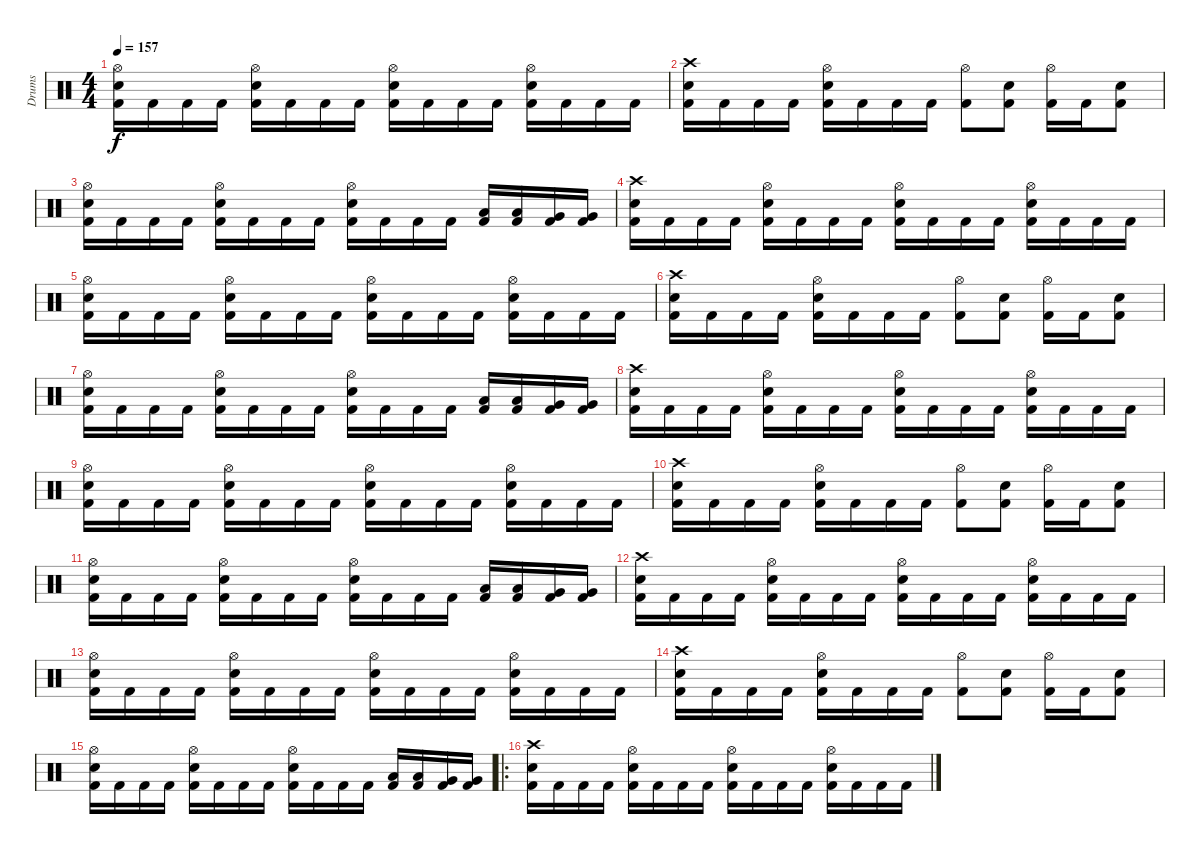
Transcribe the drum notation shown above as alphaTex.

\track ("Drums" "Drums") {instrument percussion}
\staff {score}
\articulation defaults
\ts (4 4)
\tempo 157
\clef neutral
\ks c
("Hi-Hat (open)" "Electric Snare (hit)" "Kick (hit) 2").16{dy f} "Kick (hit) 2".16 "Kick (hit) 2".16 "Kick (hit) 2".16 ("Hi-Hat (open)" "Electric Snare (hit)" "Kick (hit) 2").16 "Kick (hit) 2".16 "Kick (hit) 2".16 "Kick (hit) 2".16 ("Hi-Hat (open)" "Electric Snare (hit)" "Kick (hit) 2").16 "Kick (hit) 2".16 "Kick (hit) 2".16 "Kick (hit) 2".16 ("Hi-Hat (open)" "Electric Snare (hit)" "Kick (hit) 2").16 "Kick (hit) 2".16 "Kick (hit) 2".16 "Kick (hit) 2".16 |
("Crash high (hit)" "Electric Snare (hit)" "Kick (hit) 2").16 "Kick (hit) 2".16 "Kick (hit) 2".16 "Kick (hit) 2".16 ("Hi-Hat (open)" "Electric Snare (hit)" "Kick (hit) 2").16 "Kick (hit) 2".16 "Kick (hit) 2".16 "Kick (hit) 2".16 ("Hi-Hat (open)" "Kick (hit) 2").8 ("Electric Snare (hit)" "Kick (hit) 2").8 ("Hi-Hat (open)" "Kick (hit) 2").16 "Kick (hit) 2".16 ("Electric Snare (hit)" "Kick (hit) 2").8 |
("Hi-Hat (open)" "Electric Snare (hit)" "Kick (hit) 2").16 "Kick (hit) 2".16 "Kick (hit) 2".16 "Kick (hit) 2".16 ("Hi-Hat (open)" "Electric Snare (hit)" "Kick (hit) 2").16 "Kick (hit) 2".16 "Kick (hit) 2".16 "Kick (hit) 2".16 ("Hi-Hat (open)" "Electric Snare (hit)" "Kick (hit) 2").16 "Kick (hit) 2".16 "Kick (hit) 2".16 "Kick (hit) 2".16 ("Low Tom (hit)" "Kick (hit) 2").16 ("Low Tom (hit)" "Kick (hit) 2").16 ("Very Low Tom (hit)" "Kick (hit) 2").16 ("Very Low Tom (hit)" "Kick (hit) 2").16 |
("Crash high (hit)" "Electric Snare (hit)" "Kick (hit) 2").16 "Kick (hit) 2".16 "Kick (hit) 2".16 "Kick (hit) 2".16 ("Hi-Hat (open)" "Electric Snare (hit)" "Kick (hit) 2").16 "Kick (hit) 2".16 "Kick (hit) 2".16 "Kick (hit) 2".16 ("Hi-Hat (open)" "Electric Snare (hit)" "Kick (hit) 2").16 "Kick (hit) 2".16 "Kick (hit) 2".16 "Kick (hit) 2".16 ("Hi-Hat (open)" "Electric Snare (hit)" "Kick (hit) 2").16 "Kick (hit) 2".16 "Kick (hit) 2".16 "Kick (hit) 2".16 |
("Hi-Hat (open)" "Electric Snare (hit)" "Kick (hit) 2").16 "Kick (hit) 2".16 "Kick (hit) 2".16 "Kick (hit) 2".16 ("Hi-Hat (open)" "Electric Snare (hit)" "Kick (hit) 2").16 "Kick (hit) 2".16 "Kick (hit) 2".16 "Kick (hit) 2".16 ("Hi-Hat (open)" "Electric Snare (hit)" "Kick (hit) 2").16 "Kick (hit) 2".16 "Kick (hit) 2".16 "Kick (hit) 2".16 ("Hi-Hat (open)" "Electric Snare (hit)" "Kick (hit) 2").16 "Kick (hit) 2".16 "Kick (hit) 2".16 "Kick (hit) 2".16 |
("Crash high (hit)" "Electric Snare (hit)" "Kick (hit) 2").16 "Kick (hit) 2".16 "Kick (hit) 2".16 "Kick (hit) 2".16 ("Hi-Hat (open)" "Electric Snare (hit)" "Kick (hit) 2").16 "Kick (hit) 2".16 "Kick (hit) 2".16 "Kick (hit) 2".16 ("Hi-Hat (open)" "Kick (hit) 2").8 ("Electric Snare (hit)" "Kick (hit) 2").8 ("Hi-Hat (open)" "Kick (hit) 2").16 "Kick (hit) 2".16 ("Electric Snare (hit)" "Kick (hit) 2").8 |
("Hi-Hat (open)" "Electric Snare (hit)" "Kick (hit) 2").16 "Kick (hit) 2".16 "Kick (hit) 2".16 "Kick (hit) 2".16 ("Hi-Hat (open)" "Electric Snare (hit)" "Kick (hit) 2").16 "Kick (hit) 2".16 "Kick (hit) 2".16 "Kick (hit) 2".16 ("Hi-Hat (open)" "Electric Snare (hit)" "Kick (hit) 2").16 "Kick (hit) 2".16 "Kick (hit) 2".16 "Kick (hit) 2".16 ("Low Tom (hit)" "Kick (hit) 2").16 ("Low Tom (hit)" "Kick (hit) 2").16 ("Very Low Tom (hit)" "Kick (hit) 2").16 ("Very Low Tom (hit)" "Kick (hit) 2").16 |
("Crash high (hit)" "Electric Snare (hit)" "Kick (hit) 2").16 "Kick (hit) 2".16 "Kick (hit) 2".16 "Kick (hit) 2".16 ("Hi-Hat (open)" "Electric Snare (hit)" "Kick (hit) 2").16 "Kick (hit) 2".16 "Kick (hit) 2".16 "Kick (hit) 2".16 ("Hi-Hat (open)" "Electric Snare (hit)" "Kick (hit) 2").16 "Kick (hit) 2".16 "Kick (hit) 2".16 "Kick (hit) 2".16 ("Hi-Hat (open)" "Electric Snare (hit)" "Kick (hit) 2").16 "Kick (hit) 2".16 "Kick (hit) 2".16 "Kick (hit) 2".16 |
("Hi-Hat (open)" "Electric Snare (hit)" "Kick (hit) 2").16 "Kick (hit) 2".16 "Kick (hit) 2".16 "Kick (hit) 2".16 ("Hi-Hat (open)" "Electric Snare (hit)" "Kick (hit) 2").16 "Kick (hit) 2".16 "Kick (hit) 2".16 "Kick (hit) 2".16 ("Hi-Hat (open)" "Electric Snare (hit)" "Kick (hit) 2").16 "Kick (hit) 2".16 "Kick (hit) 2".16 "Kick (hit) 2".16 ("Hi-Hat (open)" "Electric Snare (hit)" "Kick (hit) 2").16 "Kick (hit) 2".16 "Kick (hit) 2".16 "Kick (hit) 2".16 |
("Crash high (hit)" "Electric Snare (hit)" "Kick (hit) 2").16 "Kick (hit) 2".16 "Kick (hit) 2".16 "Kick (hit) 2".16 ("Hi-Hat (open)" "Electric Snare (hit)" "Kick (hit) 2").16 "Kick (hit) 2".16 "Kick (hit) 2".16 "Kick (hit) 2".16 ("Hi-Hat (open)" "Kick (hit) 2").8 ("Electric Snare (hit)" "Kick (hit) 2").8 ("Hi-Hat (open)" "Kick (hit) 2").16 "Kick (hit) 2".16 ("Electric Snare (hit)" "Kick (hit) 2").8 |
("Hi-Hat (open)" "Electric Snare (hit)" "Kick (hit) 2").16 "Kick (hit) 2".16 "Kick (hit) 2".16 "Kick (hit) 2".16 ("Hi-Hat (open)" "Electric Snare (hit)" "Kick (hit) 2").16 "Kick (hit) 2".16 "Kick (hit) 2".16 "Kick (hit) 2".16 ("Hi-Hat (open)" "Electric Snare (hit)" "Kick (hit) 2").16 "Kick (hit) 2".16 "Kick (hit) 2".16 "Kick (hit) 2".16 ("Low Tom (hit)" "Kick (hit) 2").16 ("Low Tom (hit)" "Kick (hit) 2").16 ("Very Low Tom (hit)" "Kick (hit) 2").16 ("Very Low Tom (hit)" "Kick (hit) 2").16 |
("Crash high (hit)" "Electric Snare (hit)" "Kick (hit) 2").16 "Kick (hit) 2".16 "Kick (hit) 2".16 "Kick (hit) 2".16 ("Hi-Hat (open)" "Electric Snare (hit)" "Kick (hit) 2").16 "Kick (hit) 2".16 "Kick (hit) 2".16 "Kick (hit) 2".16 ("Hi-Hat (open)" "Electric Snare (hit)" "Kick (hit) 2").16 "Kick (hit) 2".16 "Kick (hit) 2".16 "Kick (hit) 2".16 ("Hi-Hat (open)" "Electric Snare (hit)" "Kick (hit) 2").16 "Kick (hit) 2".16 "Kick (hit) 2".16 "Kick (hit) 2".16 |
("Hi-Hat (open)" "Electric Snare (hit)" "Kick (hit) 2").16 "Kick (hit) 2".16 "Kick (hit) 2".16 "Kick (hit) 2".16 ("Hi-Hat (open)" "Electric Snare (hit)" "Kick (hit) 2").16 "Kick (hit) 2".16 "Kick (hit) 2".16 "Kick (hit) 2".16 ("Hi-Hat (open)" "Electric Snare (hit)" "Kick (hit) 2").16 "Kick (hit) 2".16 "Kick (hit) 2".16 "Kick (hit) 2".16 ("Hi-Hat (open)" "Electric Snare (hit)" "Kick (hit) 2").16 "Kick (hit) 2".16 "Kick (hit) 2".16 "Kick (hit) 2".16 |
("Crash high (hit)" "Electric Snare (hit)" "Kick (hit) 2").16 "Kick (hit) 2".16 "Kick (hit) 2".16 "Kick (hit) 2".16 ("Hi-Hat (open)" "Electric Snare (hit)" "Kick (hit) 2").16 "Kick (hit) 2".16 "Kick (hit) 2".16 "Kick (hit) 2".16 ("Hi-Hat (open)" "Kick (hit) 2").8 ("Electric Snare (hit)" "Kick (hit) 2").8 ("Hi-Hat (open)" "Kick (hit) 2").16 "Kick (hit) 2".16 ("Electric Snare (hit)" "Kick (hit) 2").8 |
("Hi-Hat (open)" "Electric Snare (hit)" "Kick (hit) 2").16 "Kick (hit) 2".16 "Kick (hit) 2".16 "Kick (hit) 2".16 ("Hi-Hat (open)" "Electric Snare (hit)" "Kick (hit) 2").16 "Kick (hit) 2".16 "Kick (hit) 2".16 "Kick (hit) 2".16 ("Hi-Hat (open)" "Electric Snare (hit)" "Kick (hit) 2").16 "Kick (hit) 2".16 "Kick (hit) 2".16 "Kick (hit) 2".16 ("Low Tom (hit)" "Kick (hit) 2").16 ("Low Tom (hit)" "Kick (hit) 2").16 ("Very Low Tom (hit)" "Kick (hit) 2").16 ("Very Low Tom (hit)" "Kick (hit) 2").16 |
\ro
("Crash high (hit)" "Electric Snare (hit)" "Kick (hit) 2").16 "Kick (hit) 2".16 "Kick (hit) 2".16 "Kick (hit) 2".16 ("Hi-Hat (open)" "Electric Snare (hit)" "Kick (hit) 2").16 "Kick (hit) 2".16 "Kick (hit) 2".16 "Kick (hit) 2".16 ("Hi-Hat (open)" "Electric Snare (hit)" "Kick (hit) 2").16 "Kick (hit) 2".16 "Kick (hit) 2".16 "Kick (hit) 2".16 ("Hi-Hat (open)" "Electric Snare (hit)" "Kick (hit) 2").16 "Kick (hit) 2".16 "Kick (hit) 2".16 "Kick (hit) 2".16
